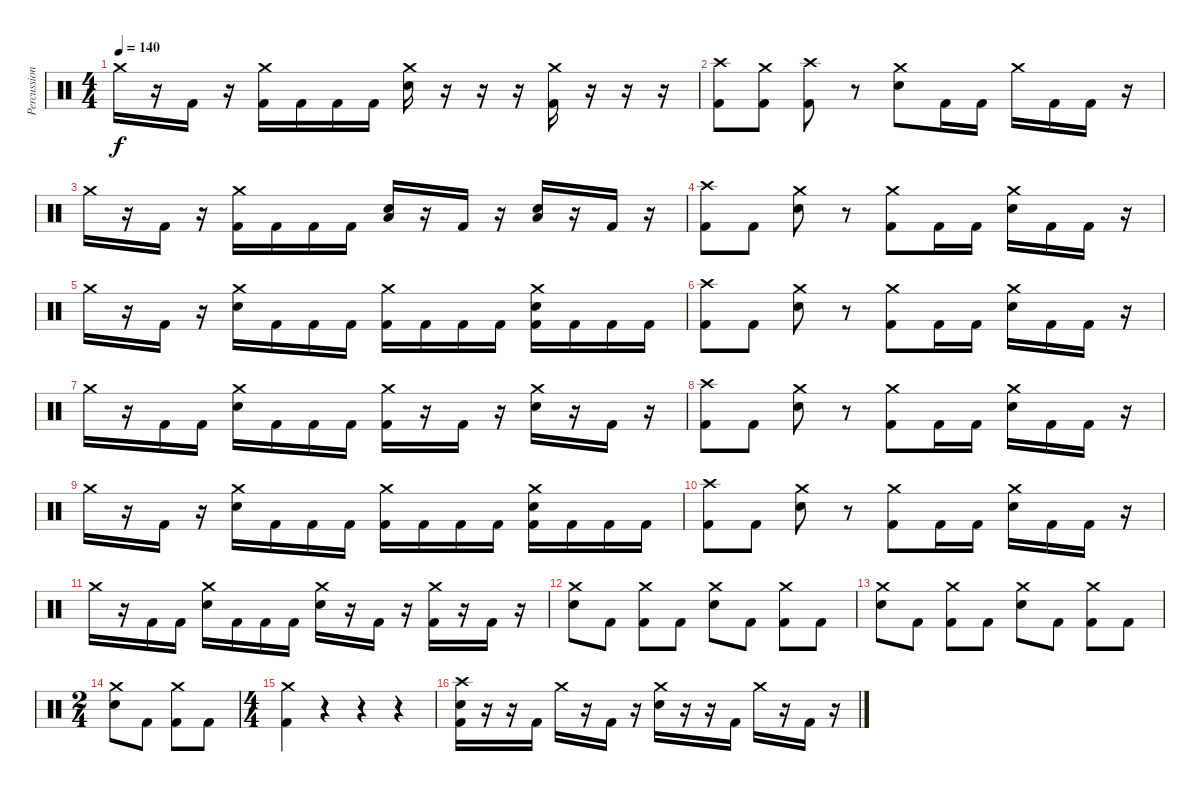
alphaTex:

\track ("Percussions" "Percussion") {instrument percussion}
\staff {score}
\articulation defaults
\ts (4 4)
\tempo 140
\clef neutral
\ks c "Crash medium (hit)".16{dy f}
r.16 "Kick (hit) 2".16 r.16 ("Kick (hit) 2" "Crash medium (hit)").16 "Kick (hit) 2".16 "Kick (hit) 2".16 "Kick (hit) 2".16 ("Electric Snare (hit)" "Crash medium (hit)").16 r.16 r.16 r.16 ("Kick (hit) 2" "Crash medium (hit)").16 r.16 r.16 r.16 |
("Kick (hit) 2" "Crash high (hit)").8 ("Kick (hit) 2" "Crash medium (hit)").8 ("Kick (hit) 2" "Crash high (hit)").8 r.8 ("Electric Snare (hit)" "Crash medium (hit)").8 "Kick (hit) 2".16 "Kick (hit) 2".16 "Crash medium (hit)".16 "Kick (hit) 2".16 "Kick (hit) 2".16 r.16 |
"Crash medium (hit)".16 r.16 "Kick (hit) 2".16 r.16 ("Kick (hit) 2" "Crash medium (hit)").16 "Kick (hit) 2".16 "Kick (hit) 2".16 "Kick (hit) 2".16 ("Electric Snare (hit)" "Low Tom (hit)").16 r.16 "Kick (hit) 2".16 r.16 ("Electric Snare (hit)" "Low Tom (hit)").16 r.16 "Kick (hit) 2".16 r.16 |
("Kick (hit) 2" "Crash high (hit)").8 "Kick (hit) 2".8 ("Electric Snare (hit)" "Crash medium (hit)").8 r.8 ("Kick (hit) 2" "Crash medium (hit)").8 "Kick (hit) 2".16 "Kick (hit) 2".16 ("Electric Snare (hit)" "Crash medium (hit)").16 "Kick (hit) 2".16 "Kick (hit) 2".16 r.16 |
"Crash medium (hit)".16 r.16 "Kick (hit) 2".16 r.16 ("Electric Snare (hit)" "Crash medium (hit)").16 "Kick (hit) 2".16 "Kick (hit) 2".16 "Kick (hit) 2".16 ("Kick (hit) 2" "Crash medium (hit)").16 "Kick (hit) 2".16 "Kick (hit) 2".16 "Kick (hit) 2".16 ("Kick (hit) 2" "Electric Snare (hit)" "Crash medium (hit)").16 "Kick (hit) 2".16 "Kick (hit) 2".16 "Kick (hit) 2".16 |
("Kick (hit) 2" "Crash high (hit)").8 "Kick (hit) 2".8 ("Electric Snare (hit)" "Crash medium (hit)").8 r.8 ("Kick (hit) 2" "Crash medium (hit)").8 "Kick (hit) 2".16 "Kick (hit) 2".16 ("Electric Snare (hit)" "Crash medium (hit)").16 "Kick (hit) 2".16 "Kick (hit) 2".16 r.16 |
"Crash medium (hit)".16 r.16 "Kick (hit) 2".16 "Kick (hit) 2".16 ("Electric Snare (hit)" "Crash medium (hit)").16 "Kick (hit) 2".16 "Kick (hit) 2".16 "Kick (hit) 2".16 ("Kick (hit) 2" "Crash medium (hit)").16 r.16 "Kick (hit) 2".16 r.16 ("Electric Snare (hit)" "Crash medium (hit)").16 r.16 "Kick (hit) 2".16 r.16 |
("Kick (hit) 2" "Crash high (hit)").8 "Kick (hit) 2".8 ("Electric Snare (hit)" "Crash medium (hit)").8 r.8 ("Kick (hit) 2" "Crash medium (hit)").8 "Kick (hit) 2".16 "Kick (hit) 2".16 ("Electric Snare (hit)" "Crash medium (hit)").16 "Kick (hit) 2".16 "Kick (hit) 2".16 r.16 |
"Crash medium (hit)".16 r.16 "Kick (hit) 2".16 r.16 ("Electric Snare (hit)" "Crash medium (hit)").16 "Kick (hit) 2".16 "Kick (hit) 2".16 "Kick (hit) 2".16 ("Kick (hit) 2" "Crash medium (hit)").16 "Kick (hit) 2".16 "Kick (hit) 2".16 "Kick (hit) 2".16 ("Kick (hit) 2" "Electric Snare (hit)" "Crash medium (hit)").16 "Kick (hit) 2".16 "Kick (hit) 2".16 "Kick (hit) 2".16 |
("Kick (hit) 2" "Crash high (hit)").8 "Kick (hit) 2".8 ("Electric Snare (hit)" "Crash medium (hit)").8 r.8 ("Kick (hit) 2" "Crash medium (hit)").8 "Kick (hit) 2".16 "Kick (hit) 2".16 ("Electric Snare (hit)" "Crash medium (hit)").16 "Kick (hit) 2".16 "Kick (hit) 2".16 r.16 |
"Crash medium (hit)".16 r.16 "Kick (hit) 2".16 "Kick (hit) 2".16 ("Electric Snare (hit)" "Crash medium (hit)").16 "Kick (hit) 2".16 "Kick (hit) 2".16 "Kick (hit) 2".16 ("Electric Snare (hit)" "Crash medium (hit)").16 r.16 "Kick (hit) 2".16 r.16 ("Kick (hit) 2" "Crash medium (hit)").16 r.16 "Kick (hit) 2".16 r.16 |
("Electric Snare (hit)" "Crash medium (hit)").8 "Kick (hit) 2".8 ("Kick (hit) 2" "Crash medium (hit)").8 "Kick (hit) 2".8 ("Electric Snare (hit)" "Crash medium (hit)").8 "Kick (hit) 2".8 ("Kick (hit) 2" "Crash medium (hit)").8 "Kick (hit) 2".8 |
("Electric Snare (hit)" "Crash medium (hit)").8 "Kick (hit) 2".8 ("Kick (hit) 2" "Crash medium (hit)").8 "Kick (hit) 2".8 ("Electric Snare (hit)" "Crash medium (hit)").8 "Kick (hit) 2".8 ("Kick (hit) 2" "Crash medium (hit)").8 "Kick (hit) 2".8 |
\ts (2 4)
("Electric Snare (hit)" "Crash medium (hit)").8 "Kick (hit) 2".8 ("Kick (hit) 2" "Crash medium (hit)").8 "Kick (hit) 2".8 |
\ts (4 4)
("Kick (hit) 2" "Crash medium (hit)").4 r.4 r.4 r.4 |
("Kick (hit) 2" "Electric Snare (hit)" "Crash high (hit)").16 r.16 r.16 "Kick (hit) 2".16 "Crash medium (hit)".16 r.16 "Kick (hit) 2".16 r.16 ("Electric Snare (hit)" "Crash medium (hit)").16 r.16 r.16 "Kick (hit) 2".16 "Crash medium (hit)".16 r.16 "Kick (hit) 2".16 r.16
